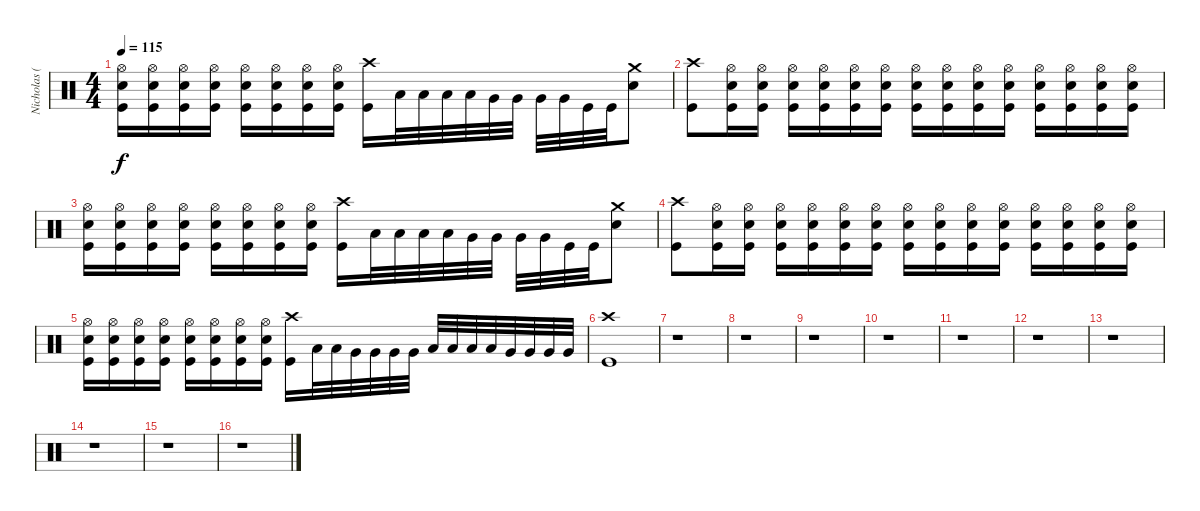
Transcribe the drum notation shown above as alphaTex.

\track ("Nicholas (Drums)" "Nicholas (") {instrument percussion}
\staff {score}
\articulation defaults
\ts (4 4)
\tempo 115
\clef neutral
\ks c
("Hi-Hat (open)" "Electric Snare (hit)" "Kick (hit)").16{dy f} ("Hi-Hat (open)" "Electric Snare (hit)" "Kick (hit)").16 ("Hi-Hat (open)" "Electric Snare (hit)" "Kick (hit)").16 ("Hi-Hat (open)" "Electric Snare (hit)" "Kick (hit)").16 ("Hi-Hat (open)" "Electric Snare (hit)" "Kick (hit)").16 ("Hi-Hat (open)" "Electric Snare (hit)" "Kick (hit)").16 ("Hi-Hat (open)" "Electric Snare (hit)" "Kick (hit)").16 ("Hi-Hat (open)" "Electric Snare (hit)" "Kick (hit)").16 ("Crash high (hit)" "Kick (hit)").16 "Low Floor Tom (hit)".32 "Low Floor Tom (hit)".32 "Low Floor Tom (hit)".32 "Low Floor Tom (hit)".32 "Very Low Tom (hit)".32 "Very Low Tom (hit)".32 "Very Low Tom (hit)".32 "Very Low Tom (hit)".32 "Kick (hit)".32 "Kick (hit)".32 ("Crash medium (hit)" "Electric Snare (hit)").8 |
("Crash high (hit)" "Kick (hit)").8 ("Hi-Hat (open)" "Electric Snare (hit)" "Kick (hit)").16 ("Hi-Hat (open)" "Electric Snare (hit)" "Kick (hit)").16 ("Hi-Hat (open)" "Electric Snare (hit)" "Kick (hit)").16 ("Hi-Hat (open)" "Electric Snare (hit)" "Kick (hit)").16 ("Hi-Hat (open)" "Electric Snare (hit)" "Kick (hit)").16 ("Hi-Hat (open)" "Electric Snare (hit)" "Kick (hit)").16 ("Hi-Hat (open)" "Electric Snare (hit)" "Kick (hit)").16 ("Hi-Hat (open)" "Electric Snare (hit)" "Kick (hit)").16 ("Hi-Hat (open)" "Electric Snare (hit)" "Kick (hit)").16 ("Hi-Hat (open)" "Electric Snare (hit)" "Kick (hit)").16 ("Hi-Hat (open)" "Electric Snare (hit)" "Kick (hit)").16 ("Hi-Hat (open)" "Electric Snare (hit)" "Kick (hit)").16 ("Hi-Hat (open)" "Electric Snare (hit)" "Kick (hit)").16 ("Hi-Hat (open)" "Electric Snare (hit)" "Kick (hit)").16 |
("Hi-Hat (open)" "Electric Snare (hit)" "Kick (hit)").16 ("Hi-Hat (open)" "Electric Snare (hit)" "Kick (hit)").16 ("Hi-Hat (open)" "Electric Snare (hit)" "Kick (hit)").16 ("Hi-Hat (open)" "Electric Snare (hit)" "Kick (hit)").16 ("Hi-Hat (open)" "Electric Snare (hit)" "Kick (hit)").16 ("Hi-Hat (open)" "Electric Snare (hit)" "Kick (hit)").16 ("Hi-Hat (open)" "Electric Snare (hit)" "Kick (hit)").16 ("Hi-Hat (open)" "Electric Snare (hit)" "Kick (hit)").16 ("Crash high (hit)" "Kick (hit)").16 "Low Tom (hit)".32 "Low Tom (hit)".32 "Low Tom (hit)".32 "Low Tom (hit)".32 "Very Low Tom (hit)".32 "Very Low Tom (hit)".32 "Very Low Tom (hit)".32 "Very Low Tom (hit)".32 "Kick (hit)".32 "Kick (hit)".32 ("Crash medium (hit)" "Electric Snare (hit)").8 |
("Crash high (hit)" "Kick (hit)").8 ("Hi-Hat (open)" "Electric Snare (hit)" "Kick (hit)").16 ("Hi-Hat (open)" "Electric Snare (hit)" "Kick (hit)").16 ("Hi-Hat (open)" "Electric Snare (hit)" "Kick (hit)").16 ("Hi-Hat (open)" "Electric Snare (hit)" "Kick (hit)").16 ("Hi-Hat (open)" "Electric Snare (hit)" "Kick (hit)").16 ("Hi-Hat (open)" "Electric Snare (hit)" "Kick (hit)").16 ("Hi-Hat (open)" "Electric Snare (hit)" "Kick (hit)").16 ("Hi-Hat (open)" "Electric Snare (hit)" "Kick (hit)").16 ("Hi-Hat (open)" "Electric Snare (hit)" "Kick (hit)").16 ("Hi-Hat (open)" "Electric Snare (hit)" "Kick (hit)").16 ("Hi-Hat (open)" "Electric Snare (hit)" "Kick (hit)").16 ("Hi-Hat (open)" "Electric Snare (hit)" "Kick (hit)").16 ("Hi-Hat (open)" "Electric Snare (hit)" "Kick (hit)").16 ("Hi-Hat (open)" "Electric Snare (hit)" "Kick (hit)").16 |
("Hi-Hat (open)" "Electric Snare (hit)" "Kick (hit)").16 ("Hi-Hat (open)" "Electric Snare (hit)" "Kick (hit)").16 ("Hi-Hat (open)" "Electric Snare (hit)" "Kick (hit)").16 ("Hi-Hat (open)" "Electric Snare (hit)" "Kick (hit)").16 ("Hi-Hat (open)" "Electric Snare (hit)" "Kick (hit)").16 ("Hi-Hat (open)" "Electric Snare (hit)" "Kick (hit)").16 ("Hi-Hat (open)" "Electric Snare (hit)" "Kick (hit)").16 ("Hi-Hat (open)" "Electric Snare (hit)" "Kick (hit)").16 ("Crash high (hit)" "Kick (hit)").16 "Low Floor Tom (hit)".32 "Low Floor Tom (hit)".32 "Very Low Tom (hit)".32 "Very Low Tom (hit)".32 "Very Low Tom (hit)".32 "Very Low Tom (hit)".32 "Low Tom (hit)".32 "Low Tom (hit)".32 "Low Tom (hit)".32 "Low Tom (hit)".32 "Very Low Tom (hit)".32 "Very Low Tom (hit)".32 "Very Low Tom (hit)".32 "Very Low Tom (hit)".32 |
("Crash high (hit)" "Kick (hit)").1 |
r.1 |
r.1 |
r.1 |
r.1 |
r.1 |
r.1 |
r.1 |
r.1 |
r.1 |
r.1
